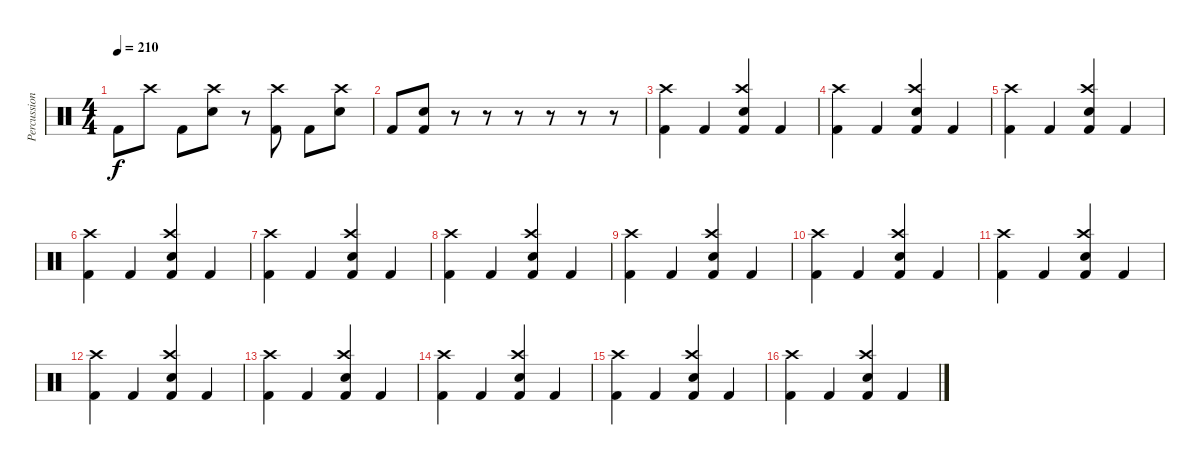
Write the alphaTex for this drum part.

\track ("Percussion" "Percussion") {instrument percussion}
\staff {score}
\articulation defaults
\ts (4 4)
\tempo 210
\clef neutral
\ks c "Kick (hit) 2".8{dy f} "Crash high (hit)".8 "Kick (hit) 2".8
("Crash high (hit)" "Snare (hit) 2").8 r.8 ("Crash high (hit)" "Kick (hit) 2").8 "Kick (hit) 2".8 ("Crash high (hit)" "Snare (hit) 2").8 |
"Kick (hit) 2".8 ("Snare (hit) 2" "Kick (hit) 2").8 r.8 r.8 r.8 r.8 r.8 r.8 |
("Crash high (hit)" "Kick (hit) 2").4 "Kick (hit) 2".4 ("Crash high (hit)" "Snare (hit) 2" "Kick (hit) 2").4 "Kick (hit) 2".4 |
("Crash high (hit)" "Kick (hit) 2").4 "Kick (hit) 2".4 ("Crash high (hit)" "Snare (hit) 2" "Kick (hit) 2").4 "Kick (hit) 2".4 |
("Crash high (hit)" "Kick (hit) 2").4 "Kick (hit) 2".4 ("Crash high (hit)" "Snare (hit) 2" "Kick (hit) 2").4 "Kick (hit) 2".4 |
("Crash high (hit)" "Kick (hit) 2").4 "Kick (hit) 2".4 ("Crash high (hit)" "Snare (hit) 2" "Kick (hit) 2").4 "Kick (hit) 2".4 |
("Crash high (hit)" "Kick (hit) 2").4 "Kick (hit) 2".4 ("Crash high (hit)" "Snare (hit) 2" "Kick (hit) 2").4 "Kick (hit) 2".4 |
("Crash high (hit)" "Kick (hit) 2").4 "Kick (hit) 2".4 ("Crash high (hit)" "Snare (hit) 2" "Kick (hit) 2").4 "Kick (hit) 2".4 |
("Crash high (hit)" "Kick (hit) 2").4 "Kick (hit) 2".4 ("Crash high (hit)" "Snare (hit) 2" "Kick (hit) 2").4 "Kick (hit) 2".4 |
("Crash high (hit)" "Kick (hit) 2").4 "Kick (hit) 2".4 ("Crash high (hit)" "Snare (hit) 2" "Kick (hit) 2").4 "Kick (hit) 2".4 |
("Crash high (hit)" "Kick (hit) 2").4 "Kick (hit) 2".4 ("Crash high (hit)" "Snare (hit) 2" "Kick (hit) 2").4 "Kick (hit) 2".4 |
("Crash high (hit)" "Kick (hit) 2").4 "Kick (hit) 2".4 ("Crash high (hit)" "Snare (hit) 2" "Kick (hit) 2").4 "Kick (hit) 2".4 |
("Crash high (hit)" "Kick (hit) 2").4 "Kick (hit) 2".4 ("Crash high (hit)" "Snare (hit) 2" "Kick (hit) 2").4 "Kick (hit) 2".4 |
("Crash high (hit)" "Kick (hit) 2").4 "Kick (hit) 2".4 ("Crash high (hit)" "Snare (hit) 2" "Kick (hit) 2").4 "Kick (hit) 2".4 |
("Crash high (hit)" "Kick (hit) 2").4 "Kick (hit) 2".4 ("Crash high (hit)" "Snare (hit) 2" "Kick (hit) 2").4 "Kick (hit) 2".4 |
("Crash high (hit)" "Kick (hit) 2").4 "Kick (hit) 2".4 ("Crash high (hit)" "Snare (hit) 2" "Kick (hit) 2").4 "Kick (hit) 2".4
